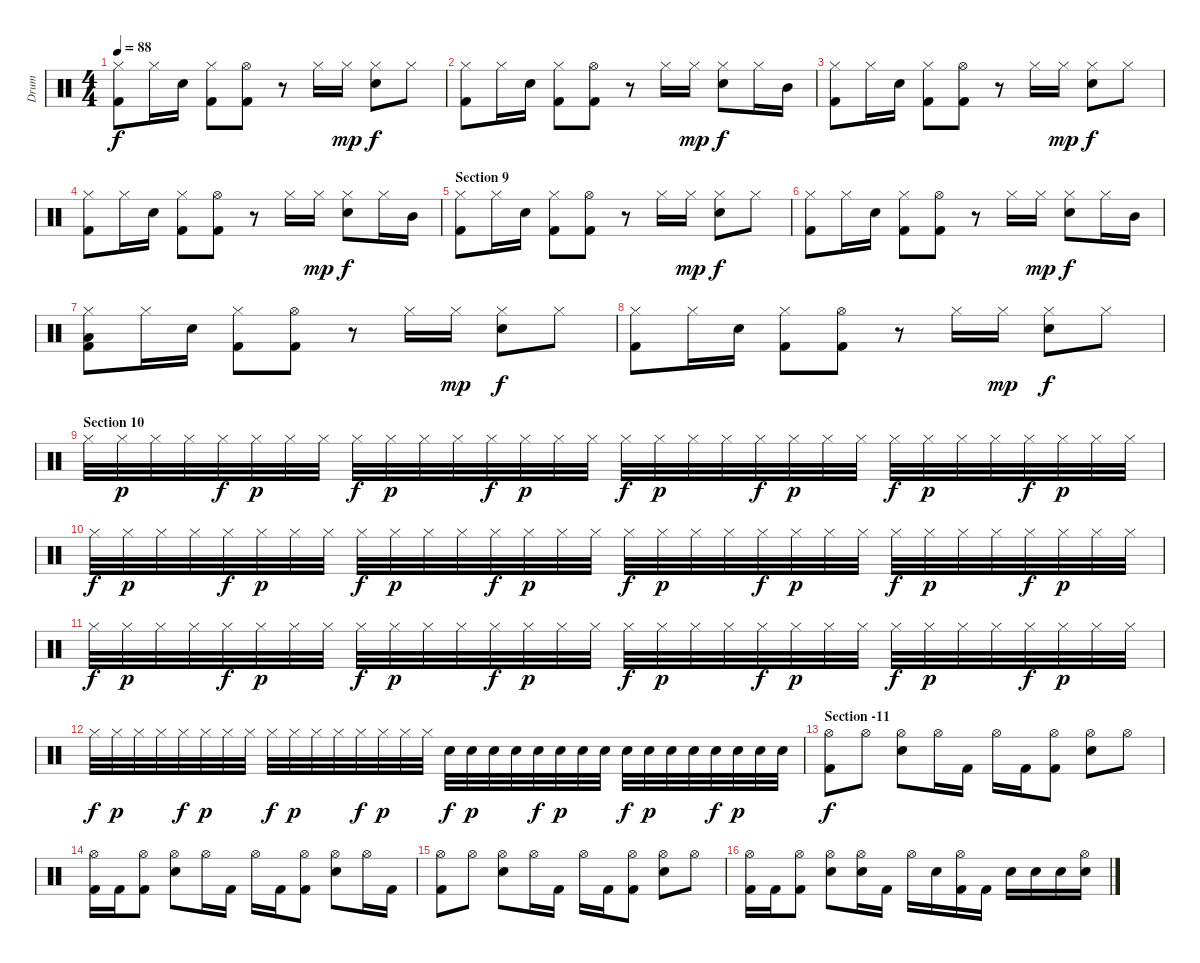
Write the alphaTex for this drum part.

\track ("Drum" "Drum") {instrument percussion}
\staff {score}
\articulation defaults
\ts (4 4)
\tempo 88
\clef neutral
\ks c
("Hi-Hat (closed)" "Kick (hit) 2").8{dy f} "Hi-Hat (closed)".16 "Electric Snare (hit)".16 ("Hi-Hat (closed)" "Kick (hit) 2").8 ("Hi-Hat (open)" "Kick (hit) 2").8 r.8 "Hi-Hat (closed)".16 "Hi-Hat (closed)".16{dy mp} ("Hi-Hat (closed)" "Electric Snare (hit)").8{dy f} "Hi-Hat (closed)".8 |
("Hi-Hat (closed)" "Kick (hit) 2").8 "Hi-Hat (closed)".16 "Electric Snare (hit)".16 ("Hi-Hat (closed)" "Kick (hit) 2").8 ("Hi-Hat (open)" "Kick (hit) 2").8 r.8 "Hi-Hat (closed)".16 "Hi-Hat (closed)".16{dy mp} ("Hi-Hat (closed)" "Electric Snare (hit)").8{dy f} "Hi-Hat (closed)".16 "Mid Tom (hit)".16 |
("Hi-Hat (closed)" "Kick (hit) 2").8 "Hi-Hat (closed)".16 "Electric Snare (hit)".16 ("Hi-Hat (closed)" "Kick (hit) 2").8 ("Hi-Hat (open)" "Kick (hit) 2").8 r.8 "Hi-Hat (closed)".16 "Hi-Hat (closed)".16{dy mp} ("Hi-Hat (closed)" "Electric Snare (hit)").8{dy f} "Hi-Hat (closed)".8 |
("Hi-Hat (closed)" "Kick (hit) 2").8 "Hi-Hat (closed)".16 "Electric Snare (hit)".16 ("Hi-Hat (closed)" "Kick (hit) 2").8 ("Hi-Hat (open)" "Kick (hit) 2").8 r.8 "Hi-Hat (closed)".16 "Hi-Hat (closed)".16{dy mp} ("Hi-Hat (closed)" "Electric Snare (hit)").8{dy f} "Hi-Hat (closed)".16 "Mid Tom (hit)".16 |
\section ("" "Section 9")
("Hi-Hat (closed)" "Kick (hit) 2").8 "Hi-Hat (closed)".16 "Electric Snare (hit)".16 ("Hi-Hat (closed)" "Kick (hit) 2").8 ("Hi-Hat (open)" "Kick (hit) 2").8 r.8 "Hi-Hat (closed)".16 "Hi-Hat (closed)".16{dy mp} ("Hi-Hat (closed)" "Electric Snare (hit)").8{dy f} "Hi-Hat (closed)".8 |
("Hi-Hat (closed)" "Kick (hit) 2").8 "Hi-Hat (closed)".16 "Electric Snare (hit)".16 ("Hi-Hat (closed)" "Kick (hit) 2").8 ("Hi-Hat (open)" "Kick (hit) 2").8 r.8 "Hi-Hat (closed)".16 "Hi-Hat (closed)".16{dy mp} ("Hi-Hat (closed)" "Electric Snare (hit)").8{dy f} "Hi-Hat (closed)".16 "Mid Tom (hit)".16 |
("Hi-Hat (closed)" "Low Floor Tom (hit)" "Kick (hit) 2").8 "Hi-Hat (closed)".16 "Electric Snare (hit)".16 ("Hi-Hat (closed)" "Kick (hit) 2").8 ("Hi-Hat (open)" "Kick (hit) 2").8 r.8 "Hi-Hat (closed)".16 "Hi-Hat (closed)".16{dy mp} ("Hi-Hat (closed)" "Electric Snare (hit)").8{dy f} "Hi-Hat (closed)".8 |
("Hi-Hat (closed)" "Kick (hit) 2").8 "Hi-Hat (closed)".16 "Electric Snare (hit)".16 ("Hi-Hat (closed)" "Kick (hit) 2").8 ("Hi-Hat (open)" "Kick (hit) 2").8 r.8 "Hi-Hat (closed)".16 "Hi-Hat (closed)".16{dy mp} ("Hi-Hat (closed)" "Electric Snare (hit)").8{dy f} "Hi-Hat (closed)".8 |
\section ("" "Section 10")
"Hi-Hat (closed)".32 "Hi-Hat (closed)".32{dy p} "Hi-Hat (closed)".32 "Hi-Hat (closed)".32 "Hi-Hat (closed)".32{dy f} "Hi-Hat (closed)".32{dy p} "Hi-Hat (closed)".32 "Hi-Hat (closed)".32 "Hi-Hat (closed)".32{dy f} "Hi-Hat (closed)".32{dy p} "Hi-Hat (closed)".32 "Hi-Hat (closed)".32 "Hi-Hat (closed)".32{dy f} "Hi-Hat (closed)".32{dy p} "Hi-Hat (closed)".32 "Hi-Hat (closed)".32 "Hi-Hat (closed)".32{dy f} "Hi-Hat (closed)".32{dy p} "Hi-Hat (closed)".32 "Hi-Hat (closed)".32 "Hi-Hat (closed)".32{dy f} "Hi-Hat (closed)".32{dy p} "Hi-Hat (closed)".32 "Hi-Hat (closed)".32 "Hi-Hat (closed)".32{dy f} "Hi-Hat (closed)".32{dy p} "Hi-Hat (closed)".32 "Hi-Hat (closed)".32 "Hi-Hat (closed)".32{dy f} "Hi-Hat (closed)".32{dy p} "Hi-Hat (closed)".32 "Hi-Hat (closed)".32 |
"Hi-Hat (closed)".32{dy f} "Hi-Hat (closed)".32{dy p} "Hi-Hat (closed)".32 "Hi-Hat (closed)".32 "Hi-Hat (closed)".32{dy f} "Hi-Hat (closed)".32{dy p} "Hi-Hat (closed)".32 "Hi-Hat (closed)".32 "Hi-Hat (closed)".32{dy f} "Hi-Hat (closed)".32{dy p} "Hi-Hat (closed)".32 "Hi-Hat (closed)".32 "Hi-Hat (closed)".32{dy f} "Hi-Hat (closed)".32{dy p} "Hi-Hat (closed)".32 "Hi-Hat (closed)".32 "Hi-Hat (closed)".32{dy f} "Hi-Hat (closed)".32{dy p} "Hi-Hat (closed)".32 "Hi-Hat (closed)".32 "Hi-Hat (closed)".32{dy f} "Hi-Hat (closed)".32{dy p} "Hi-Hat (closed)".32 "Hi-Hat (closed)".32 "Hi-Hat (closed)".32{dy f} "Hi-Hat (closed)".32{dy p} "Hi-Hat (closed)".32 "Hi-Hat (closed)".32 "Hi-Hat (closed)".32{dy f} "Hi-Hat (closed)".32{dy p} "Hi-Hat (closed)".32 "Hi-Hat (closed)".32 |
"Hi-Hat (closed)".32{dy f} "Hi-Hat (closed)".32{dy p} "Hi-Hat (closed)".32 "Hi-Hat (closed)".32 "Hi-Hat (closed)".32{dy f} "Hi-Hat (closed)".32{dy p} "Hi-Hat (closed)".32 "Hi-Hat (closed)".32 "Hi-Hat (closed)".32{dy f} "Hi-Hat (closed)".32{dy p} "Hi-Hat (closed)".32 "Hi-Hat (closed)".32 "Hi-Hat (closed)".32{dy f} "Hi-Hat (closed)".32{dy p} "Hi-Hat (closed)".32 "Hi-Hat (closed)".32 "Hi-Hat (closed)".32{dy f} "Hi-Hat (closed)".32{dy p} "Hi-Hat (closed)".32 "Hi-Hat (closed)".32 "Hi-Hat (closed)".32{dy f} "Hi-Hat (closed)".32{dy p} "Hi-Hat (closed)".32 "Hi-Hat (closed)".32 "Hi-Hat (closed)".32{dy f} "Hi-Hat (closed)".32{dy p} "Hi-Hat (closed)".32 "Hi-Hat (closed)".32 "Hi-Hat (closed)".32{dy f} "Hi-Hat (closed)".32{dy p} "Hi-Hat (closed)".32 "Hi-Hat (closed)".32 |
"Hi-Hat (closed)".32{dy f} "Hi-Hat (closed)".32{dy p} "Hi-Hat (closed)".32 "Hi-Hat (closed)".32 "Hi-Hat (closed)".32{dy f} "Hi-Hat (closed)".32{dy p} "Hi-Hat (closed)".32 "Hi-Hat (closed)".32 "Hi-Hat (closed)".32{dy f} "Hi-Hat (closed)".32{dy p} "Hi-Hat (closed)".32 "Hi-Hat (closed)".32 "Hi-Hat (closed)".32{dy f} "Hi-Hat (closed)".32{dy p} "Hi-Hat (closed)".32 "Hi-Hat (closed)".32 "Electric Snare (hit)".32{dy f} "Electric Snare (hit)".32{dy p} "Electric Snare (hit)".32 "Electric Snare (hit)".32 "Electric Snare (hit)".32{dy f} "Electric Snare (hit)".32{dy p} "Electric Snare (hit)".32 "Electric Snare (hit)".32 "Electric Snare (hit)".32{dy f} "Electric Snare (hit)".32{dy p} "Electric Snare (hit)".32 "Electric Snare (hit)".32 "Electric Snare (hit)".32{dy f} "Electric Snare (hit)".32{dy p} "Electric Snare (hit)".32 "Electric Snare (hit)".32 |
\section ("" "Section -11")
("Hi-Hat (open)" "Kick (hit) 2").8{dy f} "Hi-Hat (open)".8 ("Hi-Hat (open)" "Electric Snare (hit)").8 "Hi-Hat (open)".16 "Kick (hit) 2".16 "Hi-Hat (open)".16 "Kick (hit) 2".16 ("Hi-Hat (open)" "Kick (hit) 2").8 ("Hi-Hat (open)" "Electric Snare (hit)").8 "Hi-Hat (open)".8 |
("Hi-Hat (open)" "Kick (hit) 2").16 "Kick (hit) 2".16 ("Hi-Hat (open)" "Kick (hit) 2").8 ("Hi-Hat (open)" "Electric Snare (hit)").8 "Hi-Hat (open)".16 "Kick (hit) 2".16 "Hi-Hat (open)".16 "Kick (hit) 2".16 ("Hi-Hat (open)" "Kick (hit) 2").8 ("Hi-Hat (open)" "Electric Snare (hit)").8 "Hi-Hat (open)".16 "Kick (hit) 2".16 |
("Hi-Hat (open)" "Kick (hit) 2").8 "Hi-Hat (open)".8 ("Hi-Hat (open)" "Electric Snare (hit)").8 "Hi-Hat (open)".16 "Kick (hit) 2".16 "Hi-Hat (open)".16 "Kick (hit) 2".16 ("Hi-Hat (open)" "Kick (hit) 2").8 ("Hi-Hat (open)" "Electric Snare (hit)").8 "Hi-Hat (open)".8 |
("Hi-Hat (open)" "Kick (hit) 2").16 "Kick (hit) 2".16 ("Hi-Hat (open)" "Kick (hit) 2").8 ("Hi-Hat (open)" "Electric Snare (hit)").8 ("Hi-Hat (open)" "Electric Snare (hit)").16 "Kick (hit) 2".16 "Hi-Hat (open)".16 "Electric Snare (hit)".16 ("Hi-Hat (open)" "Kick (hit) 2").16 "Kick (hit) 2".16 "Electric Snare (hit)".16 "Electric Snare (hit)".16 "Electric Snare (hit)".16 ("Hi-Hat (open)" "Electric Snare (hit)").16
